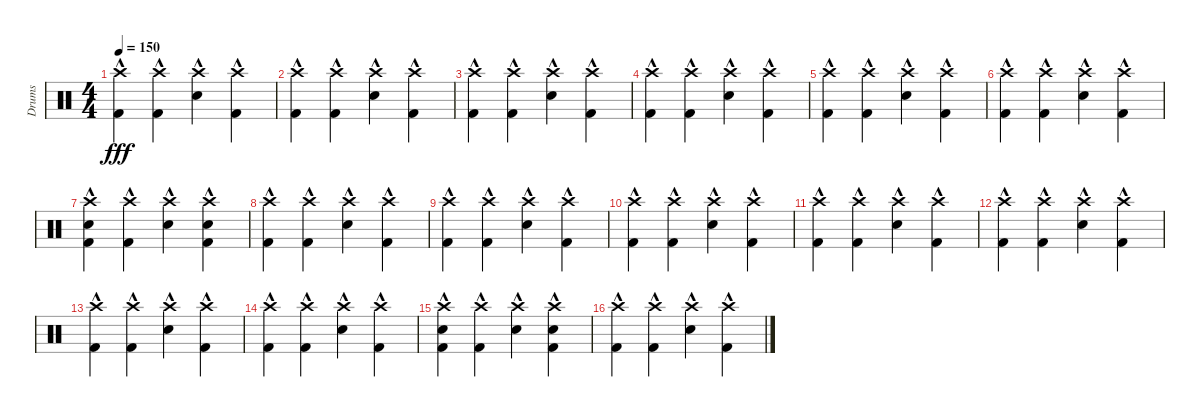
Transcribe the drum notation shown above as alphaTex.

\track ("Drums" "Drums") {instrument percussion}
\staff {score}
\articulation defaults
\ts (4 4)
\tempo 150
\clef neutral
\ks c
("Crash high (hit)" "Kick (hit) 2"{hac}).4{dy fff} ("Crash high (hit)" "Kick (hit) 2"{hac}).4 ("Crash high (hit)" "Electric Snare (hit)"{hac}).4 ("Crash high (hit)" "Kick (hit) 2"{hac}).4 |
("Crash high (hit)" "Kick (hit) 2"{hac}).4 ("Crash high (hit)" "Kick (hit) 2"{hac}).4 ("Crash high (hit)" "Electric Snare (hit)"{hac}).4 ("Crash high (hit)" "Kick (hit) 2"{hac}).4 |
("Crash high (hit)" "Kick (hit) 2"{hac}).4 ("Crash high (hit)" "Kick (hit) 2"{hac}).4 ("Crash high (hit)" "Electric Snare (hit)"{hac}).4 ("Crash high (hit)" "Kick (hit) 2"{hac}).4 |
("Crash high (hit)" "Kick (hit) 2"{hac}).4 ("Crash high (hit)" "Kick (hit) 2"{hac}).4 ("Crash high (hit)" "Electric Snare (hit)"{hac}).4 ("Crash high (hit)" "Kick (hit) 2"{hac}).4 |
("Crash high (hit)" "Kick (hit) 2"{hac}).4 ("Crash high (hit)" "Kick (hit) 2"{hac}).4 ("Crash high (hit)" "Electric Snare (hit)"{hac}).4 ("Crash high (hit)" "Kick (hit) 2"{hac}).4 |
("Crash high (hit)" "Kick (hit) 2"{hac}).4 ("Crash high (hit)" "Kick (hit) 2"{hac}).4 ("Crash high (hit)" "Electric Snare (hit)"{hac}).4 ("Crash high (hit)" "Kick (hit) 2"{hac}).4 |
("Crash high (hit)" "Electric Snare (hit)" "Kick (hit) 2"{hac}).4 ("Crash high (hit)" "Kick (hit) 2"{hac}).4 ("Crash high (hit)" "Electric Snare (hit)"{hac}).4 ("Crash high (hit)" "Electric Snare (hit)" "Kick (hit) 2"{hac}).4 |
("Crash high (hit)" "Kick (hit) 2"{hac}).4 ("Crash high (hit)" "Kick (hit) 2"{hac}).4 ("Crash high (hit)" "Electric Snare (hit)"{hac}).4 ("Crash high (hit)" "Kick (hit) 2"{hac}).4 |
("Crash high (hit)" "Kick (hit) 2"{hac}).4 ("Crash high (hit)" "Kick (hit) 2"{hac}).4 ("Crash high (hit)" "Electric Snare (hit)"{hac}).4 ("Crash high (hit)" "Kick (hit) 2"{hac}).4 |
("Crash high (hit)" "Kick (hit) 2"{hac}).4 ("Crash high (hit)" "Kick (hit) 2"{hac}).4 ("Crash high (hit)" "Electric Snare (hit)"{hac}).4 ("Crash high (hit)" "Kick (hit) 2"{hac}).4 |
("Crash high (hit)" "Kick (hit) 2"{hac}).4 ("Crash high (hit)" "Kick (hit) 2"{hac}).4 ("Crash high (hit)" "Electric Snare (hit)"{hac}).4 ("Crash high (hit)" "Kick (hit) 2"{hac}).4 |
("Crash high (hit)" "Kick (hit) 2"{hac}).4 ("Crash high (hit)" "Kick (hit) 2"{hac}).4 ("Crash high (hit)" "Electric Snare (hit)"{hac}).4 ("Crash high (hit)" "Kick (hit) 2"{hac}).4 |
("Crash high (hit)" "Kick (hit) 2"{hac}).4 ("Crash high (hit)" "Kick (hit) 2"{hac}).4 ("Crash high (hit)" "Electric Snare (hit)"{hac}).4 ("Crash high (hit)" "Kick (hit) 2"{hac}).4 |
("Crash high (hit)" "Kick (hit) 2"{hac}).4 ("Crash high (hit)" "Kick (hit) 2"{hac}).4 ("Crash high (hit)" "Electric Snare (hit)"{hac}).4 ("Crash high (hit)" "Kick (hit) 2"{hac}).4 |
("Crash high (hit)" "Electric Snare (hit)" "Kick (hit) 2"{hac}).4 ("Crash high (hit)" "Kick (hit) 2"{hac}).4 ("Crash high (hit)" "Electric Snare (hit)"{hac}).4 ("Crash high (hit)" "Electric Snare (hit)" "Kick (hit) 2"{hac}).4 |
("Crash high (hit)" "Kick (hit) 2"{hac}).4 ("Crash high (hit)" "Kick (hit) 2"{hac}).4 ("Crash high (hit)" "Electric Snare (hit)"{hac}).4 ("Crash high (hit)" "Kick (hit) 2"{hac}).4
